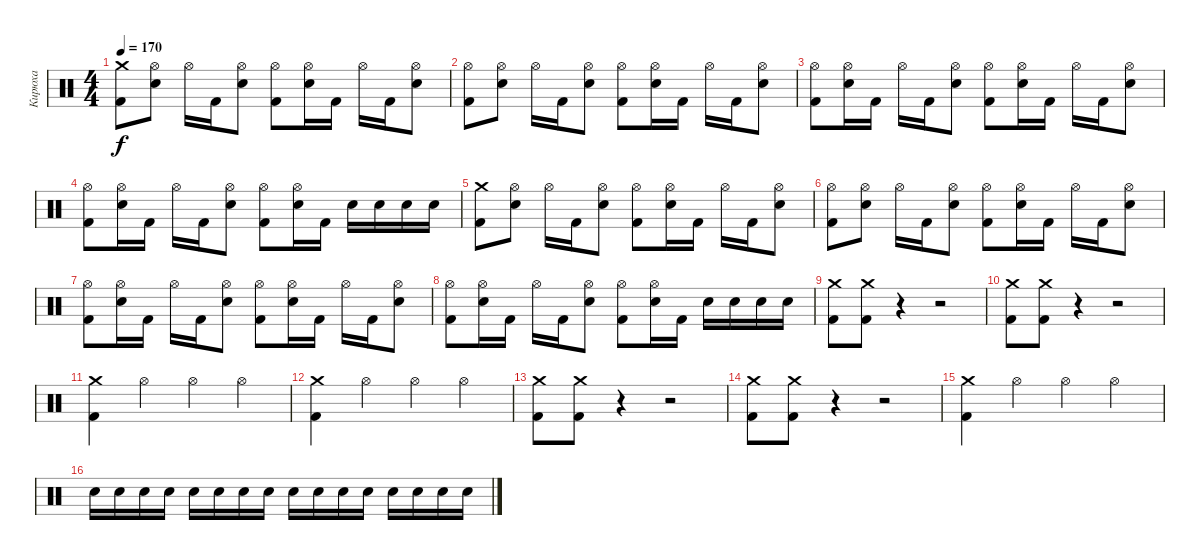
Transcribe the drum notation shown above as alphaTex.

\track ("Кирюха" "Кирюха") {instrument percussion}
\staff {score}
\articulation defaults
\ts (4 4)
\tempo 170
\clef neutral
\ks c
("Kick (hit) 2" "Crash medium (hit)").8{dy f} ("Electric Snare (hit)" "Hi-Hat (open)").8 "Hi-Hat (open)".16 "Kick (hit) 2".16 ("Electric Snare (hit)" "Hi-Hat (open)").8 ("Kick (hit) 2" "Hi-Hat (open)").8 ("Electric Snare (hit)" "Hi-Hat (open)").16 "Kick (hit) 2".16 "Hi-Hat (open)".16 "Kick (hit) 2".16 ("Electric Snare (hit)" "Hi-Hat (open)").8 |
("Kick (hit) 2" "Hi-Hat (open)").8 ("Electric Snare (hit)" "Hi-Hat (open)").8 "Hi-Hat (open)".16 "Kick (hit) 2".16 ("Electric Snare (hit)" "Hi-Hat (open)").8 ("Kick (hit) 2" "Hi-Hat (open)").8 ("Electric Snare (hit)" "Hi-Hat (open)").16 "Kick (hit) 2".16 "Hi-Hat (open)".16 "Kick (hit) 2".16 ("Electric Snare (hit)" "Hi-Hat (open)").8 |
("Kick (hit) 2" "Hi-Hat (open)").8 ("Electric Snare (hit)" "Hi-Hat (open)").16 "Kick (hit) 2".16 "Hi-Hat (open)".16 "Kick (hit) 2".16 ("Electric Snare (hit)" "Hi-Hat (open)").8 ("Kick (hit) 2" "Hi-Hat (open)").8 ("Electric Snare (hit)" "Hi-Hat (open)").16 "Kick (hit) 2".16 "Hi-Hat (open)".16 "Kick (hit) 2".16 ("Electric Snare (hit)" "Hi-Hat (open)").8 |
("Kick (hit) 2" "Hi-Hat (open)").8 ("Electric Snare (hit)" "Hi-Hat (open)").16 "Kick (hit) 2".16 "Hi-Hat (open)".16 "Kick (hit) 2".16 ("Electric Snare (hit)" "Hi-Hat (open)").8 ("Kick (hit) 2" "Hi-Hat (open)").8 ("Electric Snare (hit)" "Hi-Hat (open)").16 "Kick (hit) 2".16 "Electric Snare (hit)".16 "Electric Snare (hit)".16 "Electric Snare (hit)".16 "Electric Snare (hit)".16 |
("Kick (hit) 2" "Crash medium (hit)").8 ("Electric Snare (hit)" "Hi-Hat (open)").8 "Hi-Hat (open)".16 "Kick (hit) 2".16 ("Electric Snare (hit)" "Hi-Hat (open)").8 ("Kick (hit) 2" "Hi-Hat (open)").8 ("Electric Snare (hit)" "Hi-Hat (open)").16 "Kick (hit) 2".16 "Hi-Hat (open)".16 "Kick (hit) 2".16 ("Electric Snare (hit)" "Hi-Hat (open)").8 |
("Kick (hit) 2" "Hi-Hat (open)").8 ("Electric Snare (hit)" "Hi-Hat (open)").8 "Hi-Hat (open)".16 "Kick (hit) 2".16 ("Electric Snare (hit)" "Hi-Hat (open)").8 ("Kick (hit) 2" "Hi-Hat (open)").8 ("Electric Snare (hit)" "Hi-Hat (open)").16 "Kick (hit) 2".16 "Hi-Hat (open)".16 "Kick (hit) 2".16 ("Electric Snare (hit)" "Hi-Hat (open)").8 |
("Kick (hit) 2" "Hi-Hat (open)").8 ("Electric Snare (hit)" "Hi-Hat (open)").16 "Kick (hit) 2".16 "Hi-Hat (open)".16 "Kick (hit) 2".16 ("Electric Snare (hit)" "Hi-Hat (open)").8 ("Kick (hit) 2" "Hi-Hat (open)").8 ("Electric Snare (hit)" "Hi-Hat (open)").16 "Kick (hit) 2".16 "Hi-Hat (open)".16 "Kick (hit) 2".16 ("Electric Snare (hit)" "Hi-Hat (open)").8 |
("Kick (hit) 2" "Hi-Hat (open)").8 ("Electric Snare (hit)" "Hi-Hat (open)").16 "Kick (hit) 2".16 "Hi-Hat (open)".16 "Kick (hit) 2".16 ("Electric Snare (hit)" "Hi-Hat (open)").8 ("Kick (hit) 2" "Hi-Hat (open)").8 ("Electric Snare (hit)" "Hi-Hat (open)").16 "Kick (hit) 2".16 "Electric Snare (hit)".16 "Electric Snare (hit)".16 "Electric Snare (hit)".16 "Electric Snare (hit)".16 |
("Kick (hit) 2" "Crash medium (hit)").8 ("Kick (hit) 2" "Crash medium (hit)").8 r.4 r.2 |
("Kick (hit) 2" "Crash medium (hit)").8 ("Kick (hit) 2" "Crash medium (hit)").8 r.4 r.2 |
("Crash medium (hit)" "Kick (hit) 2").4 "Hi-Hat (open)".4 "Hi-Hat (open)".4 "Hi-Hat (open)".4 |
("Crash medium (hit)" "Kick (hit) 2").4 "Hi-Hat (open)".4 "Hi-Hat (open)".4 "Hi-Hat (open)".4 |
("Kick (hit) 2" "Crash medium (hit)").8 ("Kick (hit) 2" "Crash medium (hit)").8 r.4 r.2 |
("Kick (hit) 2" "Crash medium (hit)").8 ("Kick (hit) 2" "Crash medium (hit)").8 r.4 r.2 |
("Crash medium (hit)" "Kick (hit) 2").4 "Hi-Hat (open)".4 "Hi-Hat (open)".4 "Hi-Hat (open)".4 |
"Electric Snare (hit)".16 "Electric Snare (hit)".16 "Electric Snare (hit)".16 "Electric Snare (hit)".16 "Electric Snare (hit)".16 "Electric Snare (hit)".16 "Electric Snare (hit)".16 "Electric Snare (hit)".16 "Electric Snare (hit)".16 "Electric Snare (hit)".16 "Electric Snare (hit)".16 "Electric Snare (hit)".16 "Electric Snare (hit)".16 "Electric Snare (hit)".16 "Electric Snare (hit)".16 "Electric Snare (hit)".16
